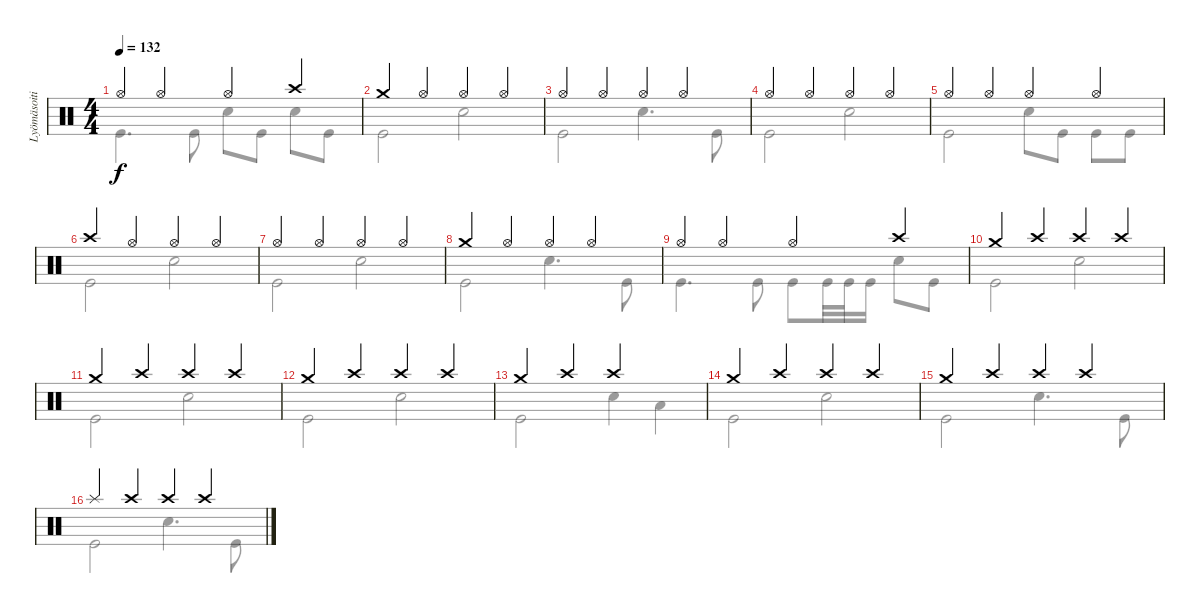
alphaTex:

\track ("Lyömäsoitin" "Lyömäsoiti") {instrument percussion}
\staff {score}
\articulation defaults
\voice
\ts (4 4)
\tempo 132
\clef neutral
\ks c "Hi-Hat (open)".4{dy f} "Hi-Hat (open)".4 "Hi-Hat (open)".4 "Crash high (hit)".4
|
"Crash medium (hit)".4 "Hi-Hat (open)".4 "Hi-Hat (open)".4 "Hi-Hat (open)".4 |
"Hi-Hat (open)".4 "Hi-Hat (open)".4 "Hi-Hat (open)".4 "Hi-Hat (open)".4 |
"Hi-Hat (open)".4 "Hi-Hat (open)".4 "Hi-Hat (open)".4 "Hi-Hat (open)".4 |
"Hi-Hat (open)".4 "Hi-Hat (open)".4 "Hi-Hat (open)".4 "Hi-Hat (open)".4 |
"Crash high (hit)".4 "Hi-Hat (open)".4 "Hi-Hat (open)".4 "Hi-Hat (open)".4 |
"Hi-Hat (open)".4 "Hi-Hat (open)".4 "Hi-Hat (open)".4 "Hi-Hat (open)".4 |
"Crash medium (hit)".4 "Hi-Hat (open)".4 "Hi-Hat (open)".4 "Hi-Hat (open)".4 |
"Hi-Hat (open)".4 "Hi-Hat (open)".4 "Hi-Hat (open)".4 "Crash high (hit)".4 |
"Crash medium (hit)".4 "Crash high (hit)".4 "Crash high (hit)".4 "Crash high (hit)".4 |
"Crash medium (hit)".4 "Crash high (hit)".4 "Crash high (hit)".4 "Crash high (hit)".4 |
"Crash medium (hit)".4 "Crash high (hit)".4 "Crash high (hit)".4 "Crash high (hit)".4 |
"Crash medium (hit)".4 "Crash high (hit)".4 "Crash high (hit)".2 |
"Crash medium (hit)".4 "Crash high (hit)".4 "Crash high (hit)".4 "Crash high (hit)".4 |
"Crash medium (hit)".4 "Crash high (hit)".4 "Crash high (hit)".4 "Crash high (hit)".4 |
"Splash (hit)".4 "Crash high (hit)".4 "Crash high (hit)".4 "Crash high (hit)".4
\voice
\clef neutral
\ottava regular
\simile none
\ks c "Kick (hit)".4{d dy f} "Kick (hit)".8 "Electric Snare (hit)".8 "Kick (hit)".8 "Electric Snare (hit)".8 "Kick (hit)".8
|
"Kick (hit)".2 "Electric Snare (hit)".2 |
"Kick (hit)".2 "Electric Snare (hit)".4{d} "Kick (hit)".8 |
"Kick (hit)".2 "Electric Snare (hit)".2 |
"Kick (hit)".2 "Electric Snare (hit)".8 "Kick (hit)".8 "Kick (hit)".8 "Kick (hit)".8 |
"Kick (hit)".2 "Electric Snare (hit)".2 |
"Kick (hit)".2 "Electric Snare (hit)".2 |
"Kick (hit)".2 "Electric Snare (hit)".4{d} "Kick (hit)".8 |
"Kick (hit)".4{d} "Kick (hit)".8 "Kick (hit)".8 "Kick (hit)".32 "Kick (hit)".32 "Kick (hit)".16 "Electric Snare (hit)".8 "Kick (hit)".8 |
"Kick (hit)".2 "Electric Snare (hit)".2 |
"Kick (hit)".2 "Electric Snare (hit)".2 |
"Kick (hit)".2 "Electric Snare (hit)".2 |
"Kick (hit)".2 "Electric Snare (hit)".4 "Low Floor Tom (hit)".4 |
"Kick (hit)".2 "Electric Snare (hit)".2 |
"Kick (hit)".2 "Electric Snare (hit)".4{d} "Kick (hit)".8 |
"Kick (hit)".2 "Electric Snare (hit)".4{d} "Kick (hit)".8
